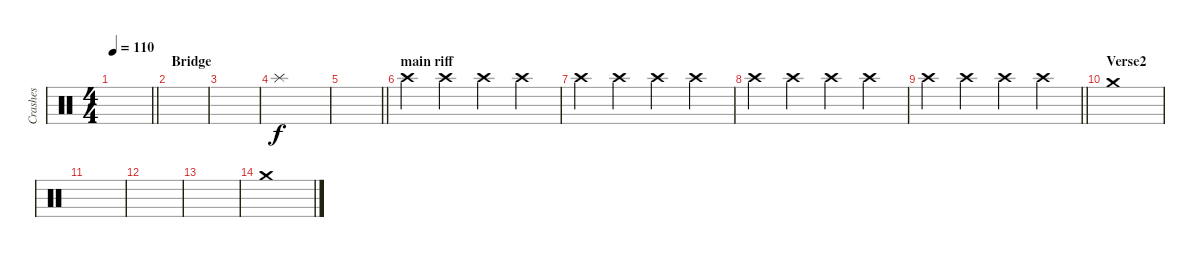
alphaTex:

\track ("Crashes" "Crashes") {instrument percussion}
\staff {score}
\articulation defaults
\ts (4 4)
\tempo 110
\clef neutral
\barLineRight lightlight
\ks c
|
\section ("" "Bridge")
|
|
"Splash (hit)".1 |
\barLineRight lightlight
|
\section ("" "main riff")
"Crash high (hit)".4 "Crash high (hit)".4 "Crash high (hit)".4 "Crash high (hit)".4 |
"Crash high (hit)".4 "Crash high (hit)".4 "Crash high (hit)".4 "Crash high (hit)".4 |
"Crash high (hit)".4 "Crash high (hit)".4 "Crash high (hit)".4 "Crash high (hit)".4 |
\barLineRight lightlight "Crash high (hit)".4 "Crash high (hit)".4 "Crash high (hit)".4 "Crash high (hit)".4
|
\section ("" "Verse2")
"Crash medium (hit)".1 |
|
|
|
"Crash medium (hit)".1
